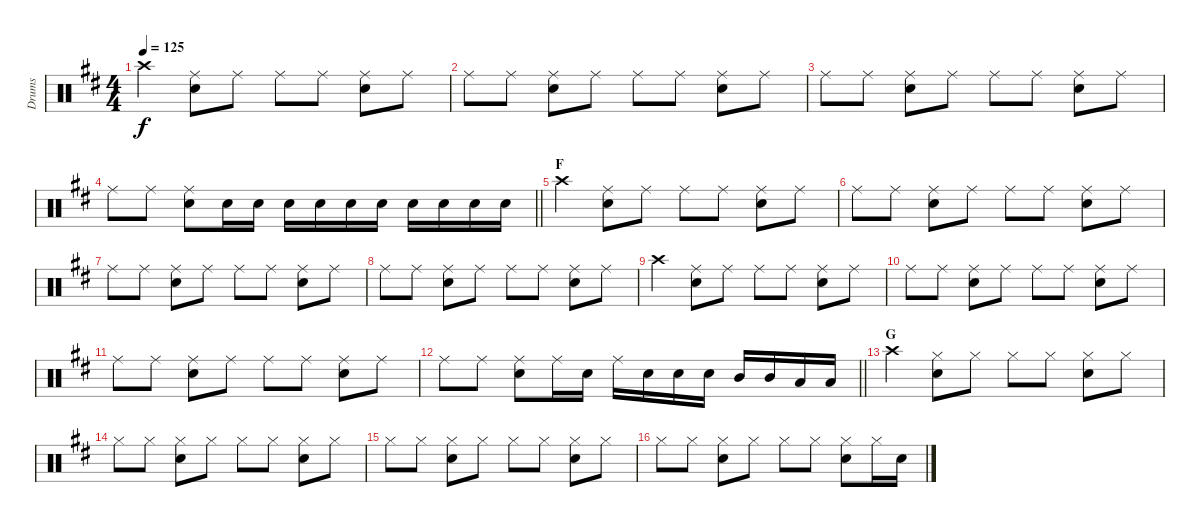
\track ("Drums" "Drums") {instrument percussion}
\staff {score}
\articulation defaults
\ts (4 4)
\tempo 125
\clef neutral
\ks d "Crash high (hit)".4{dy f}
("Ride (middle)" "Snare (hit) 2").8 "Ride (middle)".8 "Ride (middle)".8 "Ride (middle)".8 ("Ride (middle)" "Snare (hit) 2").8 "Ride (middle)".8 |
"Ride (middle)".8 "Ride (middle)".8 ("Ride (middle)" "Snare (hit) 2").8 "Ride (middle)".8 "Ride (middle)".8 "Ride (middle)".8 ("Ride (middle)" "Snare (hit) 2").8 "Ride (middle)".8 |
"Ride (middle)".8 "Ride (middle)".8 ("Ride (middle)" "Snare (hit) 2").8 "Ride (middle)".8 "Ride (middle)".8 "Ride (middle)".8 ("Ride (middle)" "Snare (hit) 2").8 "Ride (middle)".8 |
\barLineRight lightlight "Ride (middle)".8 "Ride (middle)".8
("Ride (middle)" "Snare (hit) 2").8 "Snare (hit) 2".16 "Snare (hit) 2".16 "Snare (hit) 2".16 "Snare (hit) 2".16 "Snare (hit) 2".16 "Snare (hit) 2".16 "Snare (hit) 2".16 "Snare (hit) 2".16 "Snare (hit) 2".16 "Snare (hit) 2".16 |
\section ("" "F")
"Crash high (hit)".4 ("Ride (middle)" "Snare (hit) 2").8 "Ride (middle)".8 "Ride (middle)".8 "Ride (middle)".8 ("Ride (middle)" "Snare (hit) 2").8 "Ride (middle)".8 |
"Ride (middle)".8 "Ride (middle)".8 ("Ride (middle)" "Snare (hit) 2").8 "Ride (middle)".8 "Ride (middle)".8 "Ride (middle)".8 ("Ride (middle)" "Snare (hit) 2").8 "Ride (middle)".8 |
"Ride (middle)".8 "Ride (middle)".8 ("Ride (middle)" "Snare (hit) 2").8 "Ride (middle)".8 "Ride (middle)".8 "Ride (middle)".8 ("Ride (middle)" "Snare (hit) 2").8 "Ride (middle)".8 |
"Ride (middle)".8 "Ride (middle)".8 ("Ride (middle)" "Snare (hit) 2").8 "Ride (middle)".8 "Ride (middle)".8 "Ride (middle)".8 ("Ride (middle)" "Snare (hit) 2").8 "Ride (middle)".8 |
"Crash high (hit)".4 ("Ride (middle)" "Snare (hit) 2").8 "Ride (middle)".8 "Ride (middle)".8 "Ride (middle)".8 ("Ride (middle)" "Snare (hit) 2").8 "Ride (middle)".8 |
"Ride (middle)".8 "Ride (middle)".8 ("Ride (middle)" "Snare (hit) 2").8 "Ride (middle)".8 "Ride (middle)".8 "Ride (middle)".8 ("Ride (middle)" "Snare (hit) 2").8 "Ride (middle)".8 |
"Ride (middle)".8 "Ride (middle)".8 ("Ride (middle)" "Snare (hit) 2").8 "Ride (middle)".8 "Ride (middle)".8 "Ride (middle)".8 ("Ride (middle)" "Snare (hit) 2").8 "Ride (middle)".8 |
\barLineRight lightlight "Ride (middle)".8 "Ride (middle)".8
("Ride (middle)" "Snare (hit) 2").8 "Ride (middle)".16 "Snare (hit) 2".16 "Ride (middle)".16 "Snare (hit) 2".16 "Snare (hit) 2".16 "Snare (hit) 2".16 "Mid Tom (hit)".16 "Mid Tom (hit)".16 "Low Tom (hit)".16 "Low Tom (hit)".16 |
\section ("" "G")
"Crash high (hit)".4 ("Hi-Hat (closed)" "Snare (hit) 2").8 "Hi-Hat (closed)".8 "Hi-Hat (closed)".8 "Hi-Hat (closed)".8 ("Hi-Hat (closed)" "Snare (hit) 2").8 "Hi-Hat (closed)".8 |
"Hi-Hat (closed)".8 "Hi-Hat (closed)".8 ("Hi-Hat (closed)" "Snare (hit) 2").8 "Hi-Hat (closed)".8 "Hi-Hat (closed)".8 "Hi-Hat (closed)".8 ("Hi-Hat (closed)" "Snare (hit) 2").8 "Hi-Hat (closed)".8 |
"Hi-Hat (closed)".8 "Hi-Hat (closed)".8 ("Hi-Hat (closed)" "Snare (hit) 2").8 "Hi-Hat (closed)".8 "Hi-Hat (closed)".8 "Hi-Hat (closed)".8 ("Hi-Hat (closed)" "Snare (hit) 2").8 "Hi-Hat (closed)".8 |
"Hi-Hat (closed)".8 "Hi-Hat (closed)".8 ("Hi-Hat (closed)" "Snare (hit) 2").8 "Hi-Hat (closed)".8 "Hi-Hat (closed)".8 "Hi-Hat (closed)".8 ("Hi-Hat (closed)" "Snare (hit) 2").8 "Hi-Hat (closed)".16 "Snare (hit) 2".16
